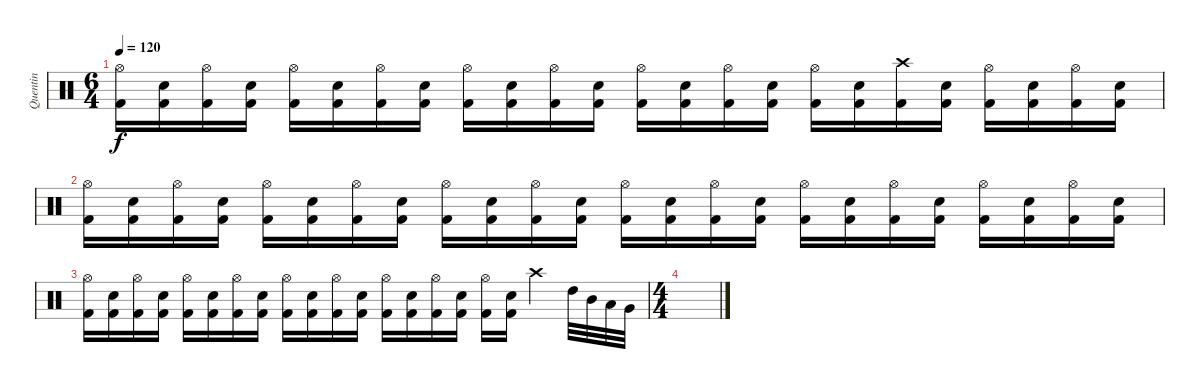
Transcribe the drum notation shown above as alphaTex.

\track ("Quentin" "Quentin") {instrument percussion}
\staff {score}
\articulation defaults
\ts (6 4)
\tempo 120
\clef neutral
\ks c
("Hi-Hat (open)" "Kick (hit) 2").16{dy f} ("Snare (hit) 2" "Kick (hit) 2").16 ("Hi-Hat (open)" "Kick (hit) 2").16 ("Snare (hit) 2" "Kick (hit) 2").16 ("Hi-Hat (open)" "Kick (hit) 2").16 ("Snare (hit) 2" "Kick (hit) 2").16 ("Hi-Hat (open)" "Kick (hit) 2").16 ("Snare (hit) 2" "Kick (hit) 2").16 ("Hi-Hat (open)" "Kick (hit) 2").16 ("Snare (hit) 2" "Kick (hit) 2").16 ("Hi-Hat (open)" "Kick (hit) 2").16 ("Snare (hit) 2" "Kick (hit) 2").16 ("Hi-Hat (open)" "Kick (hit) 2").16 ("Snare (hit) 2" "Kick (hit) 2").16 ("Hi-Hat (open)" "Kick (hit) 2").16 ("Snare (hit) 2" "Kick (hit) 2").16 ("Hi-Hat (open)" "Kick (hit) 2").16 ("Snare (hit) 2" "Kick (hit) 2").16 ("Crash high (hit)" "Kick (hit) 2").16 ("Snare (hit) 2" "Kick (hit) 2").16 ("Hi-Hat (open)" "Kick (hit) 2").16 ("Snare (hit) 2" "Kick (hit) 2").16 ("Hi-Hat (open)" "Kick (hit) 2").16 ("Snare (hit) 2" "Kick (hit) 2").16 |
("Hi-Hat (open)" "Kick (hit) 2").16 ("Snare (hit) 2" "Kick (hit) 2").16 ("Hi-Hat (open)" "Kick (hit) 2").16 ("Snare (hit) 2" "Kick (hit) 2").16 ("Hi-Hat (open)" "Kick (hit) 2").16 ("Snare (hit) 2" "Kick (hit) 2").16 ("Hi-Hat (open)" "Kick (hit) 2").16 ("Snare (hit) 2" "Kick (hit) 2").16 ("Hi-Hat (open)" "Kick (hit) 2").16 ("Snare (hit) 2" "Kick (hit) 2").16 ("Hi-Hat (open)" "Kick (hit) 2").16 ("Snare (hit) 2" "Kick (hit) 2").16 ("Hi-Hat (open)" "Kick (hit) 2").16 ("Snare (hit) 2" "Kick (hit) 2").16 ("Hi-Hat (open)" "Kick (hit) 2").16 ("Snare (hit) 2" "Kick (hit) 2").16 ("Hi-Hat (open)" "Kick (hit) 2").16 ("Snare (hit) 2" "Kick (hit) 2").16 ("Hi-Hat (open)" "Kick (hit) 2").16 ("Snare (hit) 2" "Kick (hit) 2").16 ("Hi-Hat (open)" "Kick (hit) 2").16 ("Snare (hit) 2" "Kick (hit) 2").16 ("Hi-Hat (open)" "Kick (hit) 2").16 ("Snare (hit) 2" "Kick (hit) 2").16 |
("Hi-Hat (open)" "Kick (hit) 2").16 ("Snare (hit) 2" "Kick (hit) 2").16 ("Hi-Hat (open)" "Kick (hit) 2").16 ("Snare (hit) 2" "Kick (hit) 2").16 ("Hi-Hat (open)" "Kick (hit) 2").16 ("Snare (hit) 2" "Kick (hit) 2").16 ("Hi-Hat (open)" "Kick (hit) 2").16 ("Snare (hit) 2" "Kick (hit) 2").16 ("Hi-Hat (open)" "Kick (hit) 2").16 ("Snare (hit) 2" "Kick (hit) 2").16 ("Hi-Hat (open)" "Kick (hit) 2").16 ("Snare (hit) 2" "Kick (hit) 2").16 ("Hi-Hat (open)" "Kick (hit) 2").16 ("Snare (hit) 2" "Kick (hit) 2").16 ("Hi-Hat (open)" "Kick (hit) 2").16 ("Snare (hit) 2" "Kick (hit) 2").16 ("Hi-Hat (open)" "Kick (hit) 2").16 ("Snare (hit) 2" "Kick (hit) 2").16 "Crash high (hit)".4 "High Tom (hit)".32 "Mid Tom (hit)".32 "Low Tom (hit)".32 "Very Low Tom (hit)".32 |
\ts (4 4)
